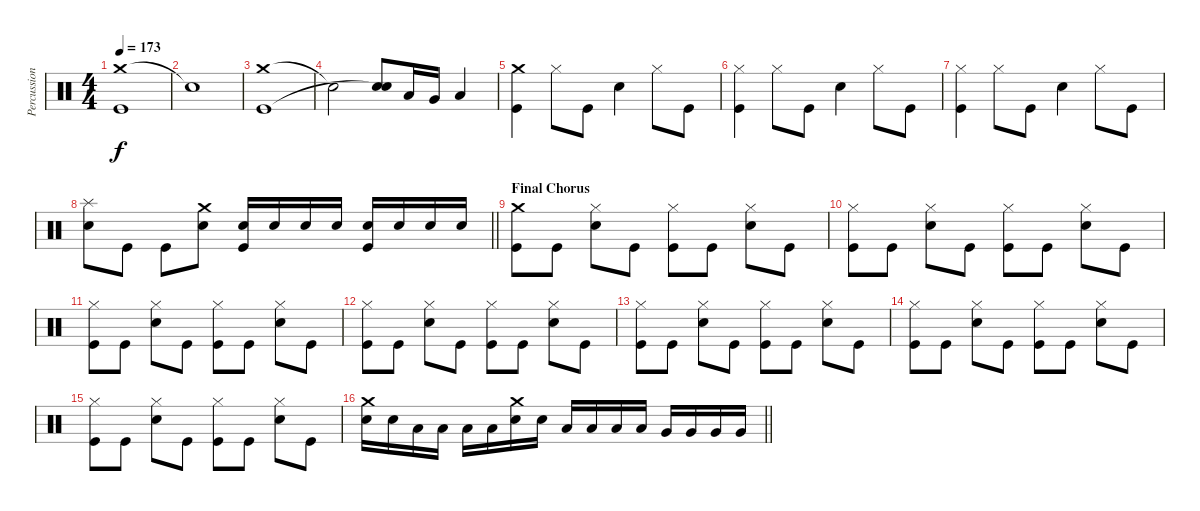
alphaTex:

\track ("Percussion" "Percussion") {instrument percussion}
\staff {score}
\articulation defaults
\ts (4 4)
\tempo 173
\clef neutral
\ks c
("Crash medium (hit)" "Kick (hit)").1{dy f} |
"Snare (hit)"{t}.1 |
("Crash medium (hit)" "Kick (hit)").1 |
"Snare (hit)"{t}.2 ("Electric Snare (hit)" "Snare (hit)"{t}).8 "Low Tom (hit)".16 "Very Low Tom (hit)".16 "Low Floor Tom (hit)".4 |
("Crash medium (hit)" "Kick (hit)").4 "Hi-Hat (closed)".8 "Kick (hit)".8 "Electric Snare (hit)".4 "Hi-Hat (closed)".8 "Kick (hit)".8 |
("Hi-Hat (closed)" "Kick (hit)").4 "Hi-Hat (closed)".8 "Kick (hit)".8 "Electric Snare (hit)".4 "Hi-Hat (closed)".8 "Kick (hit)".8 |
("Hi-Hat (closed)" "Kick (hit)").4 "Hi-Hat (closed)".8 "Kick (hit)".8 "Electric Snare (hit)".4 "Hi-Hat (closed)".8 "Kick (hit)".8 |
\barLineRight lightlight
("Splash (hit)" "Electric Snare (hit)").8 "Kick (hit)".8 "Kick (hit)".8 ("Crash medium (hit)" "Electric Snare (hit)").8 ("Electric Snare (hit)" "Kick (hit)").16 "Electric Snare (hit)".16 "Electric Snare (hit)".16 "Electric Snare (hit)".16 ("Electric Snare (hit)" "Kick (hit)").16 "Electric Snare (hit)".16 "Electric Snare (hit)".16 "Electric Snare (hit)".16 |
\section ("" "Final Chorus")
("Crash medium (hit)" "Kick (hit)").8 "Kick (hit)".8 ("Hi-Hat (closed)" "Electric Snare (hit)").8 "Kick (hit)".8 ("Hi-Hat (closed)" "Kick (hit)").8 "Kick (hit)".8 ("Hi-Hat (closed)" "Electric Snare (hit)").8 "Kick (hit)".8 |
("Hi-Hat (closed)" "Kick (hit)").8 "Kick (hit)".8 ("Hi-Hat (closed)" "Electric Snare (hit)").8 "Kick (hit)".8 ("Hi-Hat (closed)" "Kick (hit)").8 "Kick (hit)".8 ("Hi-Hat (closed)" "Electric Snare (hit)").8 "Kick (hit)".8 |
("Hi-Hat (closed)" "Kick (hit)").8 "Kick (hit)".8 ("Hi-Hat (closed)" "Electric Snare (hit)").8 "Kick (hit)".8 ("Hi-Hat (closed)" "Kick (hit)").8 "Kick (hit)".8 ("Hi-Hat (closed)" "Electric Snare (hit)").8 "Kick (hit)".8 |
("Hi-Hat (closed)" "Kick (hit)").8 "Kick (hit)".8 ("Hi-Hat (closed)" "Electric Snare (hit)").8 "Kick (hit)".8 ("Hi-Hat (closed)" "Kick (hit)").8 "Kick (hit)".8 ("Hi-Hat (closed)" "Electric Snare (hit)").8 "Kick (hit)".8 |
("Hi-Hat (closed)" "Kick (hit)").8 "Kick (hit)".8 ("Hi-Hat (closed)" "Electric Snare (hit)").8 "Kick (hit)".8 ("Hi-Hat (closed)" "Kick (hit)").8 "Kick (hit)".8 ("Hi-Hat (closed)" "Electric Snare (hit)").8 "Kick (hit)".8 |
("Hi-Hat (closed)" "Kick (hit)").8 "Kick (hit)".8 ("Hi-Hat (closed)" "Electric Snare (hit)").8 "Kick (hit)".8 ("Hi-Hat (closed)" "Kick (hit)").8 "Kick (hit)".8 ("Hi-Hat (closed)" "Electric Snare (hit)").8 "Kick (hit)".8 |
("Hi-Hat (closed)" "Kick (hit)").8 "Kick (hit)".8 ("Hi-Hat (closed)" "Electric Snare (hit)").8 "Kick (hit)".8 ("Hi-Hat (closed)" "Kick (hit)").8 "Kick (hit)".8 ("Hi-Hat (closed)" "Electric Snare (hit)").8 "Kick (hit)".8 |
\barLineRight lightlight
("Crash medium (hit)" "Electric Snare (hit)").16 "Electric Snare (hit)".16 "Low Tom (hit)".16 "Low Tom (hit)".16 "Low Tom (hit)".16 "Low Tom (hit)".16 ("Crash medium (hit)" "Electric Snare (hit)").16 "Electric Snare (hit)".16 "Low Tom (hit)".16 "Low Tom (hit)".16 "Low Tom (hit)".16 "Low Tom (hit)".16 "Very Low Tom (hit)".16 "Very Low Tom (hit)".16 "Very Low Tom (hit)".16 "Very Low Tom (hit)".16
